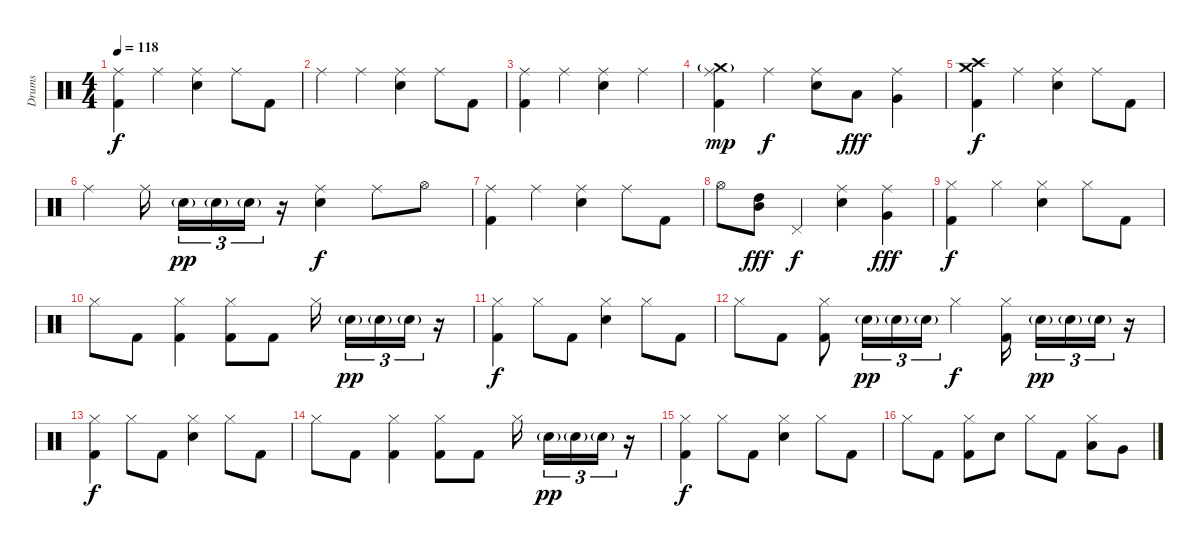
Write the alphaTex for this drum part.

\track ("Drums" "Drums") {instrument percussion}
\staff {score}
\articulation defaults
\ts (4 4)
\tempo 118
\clef neutral
\ks c
("Ride (middle)" "Kick (hit) 2").4{dy f} "Ride (middle)".4 ("Ride (middle)" "Electric Snare (hit)").4 "Ride (middle)".8 "Kick (hit) 2".8 |
"Ride (middle)".4 "Ride (middle)".4 ("Ride (middle)" "Electric Snare (hit)").4 "Ride (middle)".8 "Kick (hit) 2".8 |
("Ride (middle)" "Kick (hit) 2").4 "Ride (middle)".4 ("Ride (middle)" "Electric Snare (hit)").4 "Ride (middle)".4 |
("Crash medium (hit)"{g} "Ride (middle)" "Kick (hit) 2").4{dy mp} "Ride (middle)".4{dy f} ("Ride (middle)" "Electric Snare (hit)").8 "Low Floor Tom (hit)".8{dy fff} ("Ride (middle)" "Very Low Tom (hit)").4 |
("Crash high (hit)" "Crash medium (hit)" "Kick (hit) 2").4{dy f} "Ride (middle)".4 ("Ride (middle)" "Electric Snare (hit)").4 "Ride (middle)".8 "Kick (hit) 2".8 |
"Ride (middle)".4 "Ride (middle)".16{beam splitsecondary} "Electric Snare (hit)"{g}.16{tu (3 2) dy pp} "Electric Snare (hit)"{g}.16{tu (3 2)} "Electric Snare (hit)"{g}.16{tu (3 2)} r.16 ("Ride (middle)" "Electric Snare (hit)").4{dy f} "Ride (middle)".8 "Hi-Hat (open)".8 |
("Ride (middle)" "Kick (hit) 2").4 "Ride (middle)".4 ("Ride (middle)" "Electric Snare (hit)").4 "Ride (middle)".8 "Kick (hit) 2".8 |
"Hi-Hat (open)".8 ("Mid Tom (hit)" "High Tom (hit)").8{dy fff} "Pedal Hi-Hat (hit)".4{dy f} ("Ride (middle)" "Electric Snare (hit)").4 ("Ride (middle)" "Very Low Tom (hit)").4{dy fff} |
("Hi-Hat (closed)" "Kick (hit) 2").4{dy f} "Hi-Hat (closed)".4 ("Hi-Hat (closed)" "Electric Snare (hit)").4 "Hi-Hat (closed)".8 "Kick (hit) 2".8 |
"Hi-Hat (closed)".8 "Kick (hit) 2".8 ("Hi-Hat (closed)" "Kick (hit) 2").4 ("Hi-Hat (closed)" "Kick (hit) 2").8 "Kick (hit) 2".8 "Hi-Hat (closed)".16{beam splitsecondary} "Electric Snare (hit)"{g}.16{tu (3 2) dy pp} "Electric Snare (hit)"{g}.16{tu (3 2)} "Electric Snare (hit)"{g}.16{tu (3 2)} r.16 |
("Hi-Hat (closed)" "Kick (hit) 2").4{dy f} "Hi-Hat (closed)".8 "Kick (hit) 2".8 ("Hi-Hat (closed)" "Electric Snare (hit)").4 "Hi-Hat (closed)".8 "Kick (hit) 2".8 |
"Hi-Hat (closed)".8 "Kick (hit) 2".8 ("Hi-Hat (closed)" "Kick (hit) 2").8 "Electric Snare (hit)"{g}.16{tu (3 2) dy pp} "Electric Snare (hit)"{g}.16{tu (3 2)} "Electric Snare (hit)"{g}.16{tu (3 2)} "Hi-Hat (closed)".4{dy f} ("Hi-Hat (closed)" "Kick (hit) 2").16{beam splitsecondary} "Electric Snare (hit)"{g}.16{tu (3 2) dy pp} "Electric Snare (hit)"{g}.16{tu (3 2)} "Electric Snare (hit)"{g}.16{tu (3 2)} r.16 |
("Hi-Hat (closed)" "Kick (hit) 2").4{dy f} "Hi-Hat (closed)".8 "Kick (hit) 2".8 ("Hi-Hat (closed)" "Electric Snare (hit)").4 "Hi-Hat (closed)".8 "Kick (hit) 2".8 |
"Hi-Hat (closed)".8 "Kick (hit) 2".8 ("Hi-Hat (closed)" "Kick (hit) 2").4 ("Hi-Hat (closed)" "Kick (hit) 2").8 "Kick (hit) 2".8 "Hi-Hat (closed)".16{beam splitsecondary} "Electric Snare (hit)"{g}.16{tu (3 2) dy pp} "Electric Snare (hit)"{g}.16{tu (3 2)} "Electric Snare (hit)"{g}.16{tu (3 2)} r.16 |
("Hi-Hat (closed)" "Kick (hit) 2").4{dy f} "Hi-Hat (closed)".8 "Kick (hit) 2".8 ("Hi-Hat (closed)" "Electric Snare (hit)").4 "Hi-Hat (closed)".8 "Kick (hit) 2".8 |
"Hi-Hat (closed)".8 "Kick (hit) 2".8 ("Hi-Hat (closed)" "Kick (hit) 2").8 "Electric Snare (hit)".8 "Hi-Hat (closed)".8 "Kick (hit) 2".8 ("Hi-Hat (closed)" "Low Tom (hit)").8 "Very Low Tom (hit)".8
